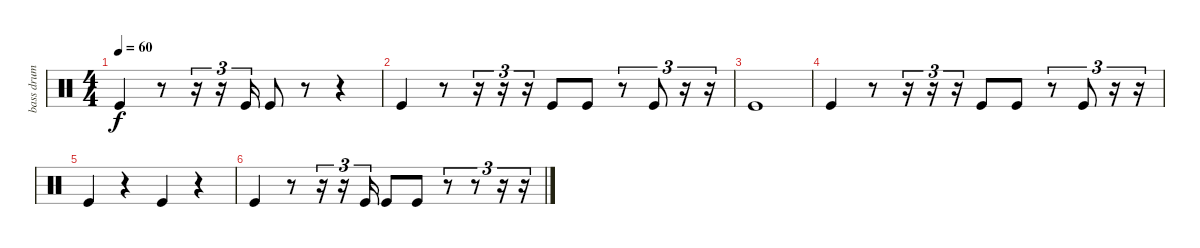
\track ("bass drum" "bass drum") {instrument percussion}
\staff {score}
\articulation defaults
\ts (4 4)
\tempo 60
\clef neutral
\ks c "Kick (hit)".4{dy f}
r.8 r.16{tu (3 2)} r.16{tu (3 2)} "Kick (hit)".16{tu (3 2)} "Kick (hit)".8 r.8 r.4 |
"Kick (hit)".4 r.8 r.16{tu (3 2)} r.16{tu (3 2)} r.16{tu (3 2)} "Kick (hit)".8 "Kick (hit)".8 r.8{tu (3 2)} "Kick (hit)".8{tu (3 2)} r.16{tu (3 2)} r.16{tu (3 2)} |
"Kick (hit)".1 |
"Kick (hit)".4 r.8 r.16{tu (3 2)} r.16{tu (3 2)} r.16{tu (3 2)} "Kick (hit)".8 "Kick (hit)".8 r.8{tu (3 2)} "Kick (hit)".8{tu (3 2)} r.16{tu (3 2)} r.16{tu (3 2)} |
"Kick (hit)".4 r.4 "Kick (hit)".4 r.4 |
"Kick (hit)".4 r.8 r.16{tu (3 2)} r.16{tu (3 2)} "Kick (hit)".16{tu (3 2)} "Kick (hit)".8 "Kick (hit)".8 r.8{tu (3 2)} r.8{tu (3 2)} r.16{tu (3 2)} r.16{tu (3 2)}
